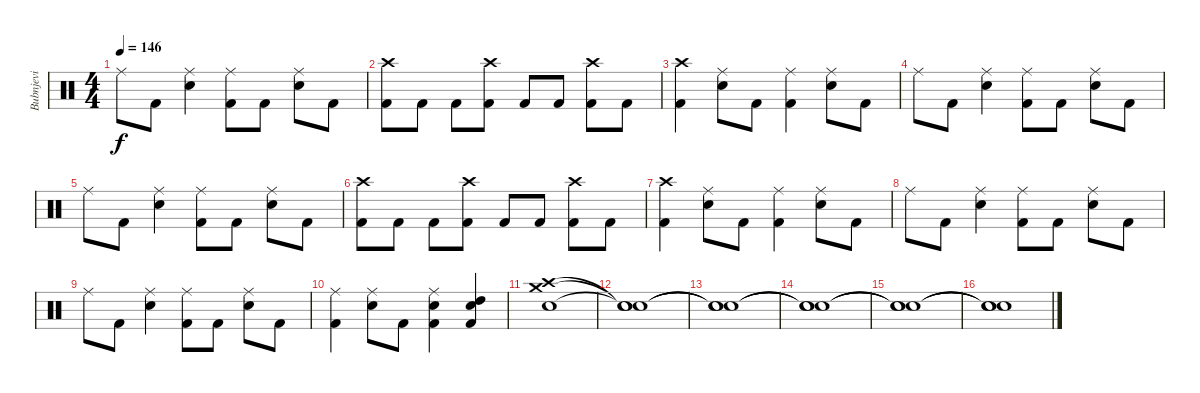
\track ("Bubnjevi" "Bubnjevi") {instrument percussion}
\staff {score}
\articulation defaults
\ts (4 4)
\tempo 146
\clef neutral
\ks c "Ride (middle)".8{dy f} "Kick (hit) 2".8
("Ride (middle)" "Electric Snare (hit)").4 ("Ride (middle)" "Kick (hit) 2").8 "Kick (hit) 2".8 ("Ride (middle)" "Electric Snare (hit)").8 "Kick (hit) 2".8 |
("Crash high (hit)" "Kick (hit) 2").8 "Kick (hit) 2".8 "Kick (hit) 2".8 ("Crash high (hit)" "Kick (hit) 2").8 "Kick (hit) 2".8 "Kick (hit) 2".8 ("Crash high (hit)" "Kick (hit) 2").8 "Kick (hit) 2".8 |
("Crash high (hit)" "Kick (hit) 2").4 ("Ride (middle)" "Electric Snare (hit)").8 "Kick (hit) 2".8 ("Ride (middle)" "Kick (hit) 2").4 ("Ride (middle)" "Electric Snare (hit)").8 "Kick (hit) 2".8 |
"Ride (middle)".8 "Kick (hit) 2".8 ("Ride (middle)" "Electric Snare (hit)").4 ("Ride (middle)" "Kick (hit) 2").8 "Kick (hit) 2".8 ("Ride (middle)" "Electric Snare (hit)").8 "Kick (hit) 2".8 |
"Ride (middle)".8 "Kick (hit) 2".8 ("Ride (middle)" "Electric Snare (hit)").4 ("Ride (middle)" "Kick (hit) 2").8 "Kick (hit) 2".8 ("Ride (middle)" "Electric Snare (hit)").8 "Kick (hit) 2".8 |
("Crash high (hit)" "Kick (hit) 2").8 "Kick (hit) 2".8 "Kick (hit) 2".8 ("Crash high (hit)" "Kick (hit) 2").8 "Kick (hit) 2".8 "Kick (hit) 2".8 ("Crash high (hit)" "Kick (hit) 2").8 "Kick (hit) 2".8 |
("Crash high (hit)" "Kick (hit) 2").4 ("Ride (middle)" "Electric Snare (hit)").8 "Kick (hit) 2".8 ("Ride (middle)" "Kick (hit) 2").4 ("Ride (middle)" "Electric Snare (hit)").8 "Kick (hit) 2".8 |
"Ride (middle)".8 "Kick (hit) 2".8 ("Ride (middle)" "Electric Snare (hit)").4 ("Ride (middle)" "Kick (hit) 2").8 "Kick (hit) 2".8 ("Ride (middle)" "Electric Snare (hit)").8 "Kick (hit) 2".8 |
"Ride (middle)".8 "Kick (hit) 2".8 ("Ride (middle)" "Electric Snare (hit)").4 ("Ride (middle)" "Kick (hit) 2").8 "Kick (hit) 2".8 ("Ride (middle)" "Electric Snare (hit)").8 "Kick (hit) 2".8 |
("Ride (middle)" "Kick (hit) 2").4 ("Ride (middle)" "Electric Snare (hit)").8 "Kick (hit) 2".8 ("Ride (middle)" "Electric Snare (hit)" "Kick (hit) 2").4 ("High Tom (hit)" "Electric Snare (hit)" "Kick (hit) 2").4 |
("Crash medium (hit)" "Crash high (hit)" "Electric Snare (hit)").1 |
("Snare (hit)"{t} "Snare (hit)"{t} "Snare (hit)"{t}).1 |
("Snare (hit)"{t} "Snare (hit)"{t} "Snare (hit)"{t}).1 |
("Snare (hit)"{t} "Snare (hit)"{t} "Snare (hit)"{t}).1 |
("Snare (hit)"{t} "Snare (hit)"{t} "Snare (hit)"{t}).1 |
("Snare (hit)"{t} "Snare (hit)"{t} "Snare (hit)"{t}).1
